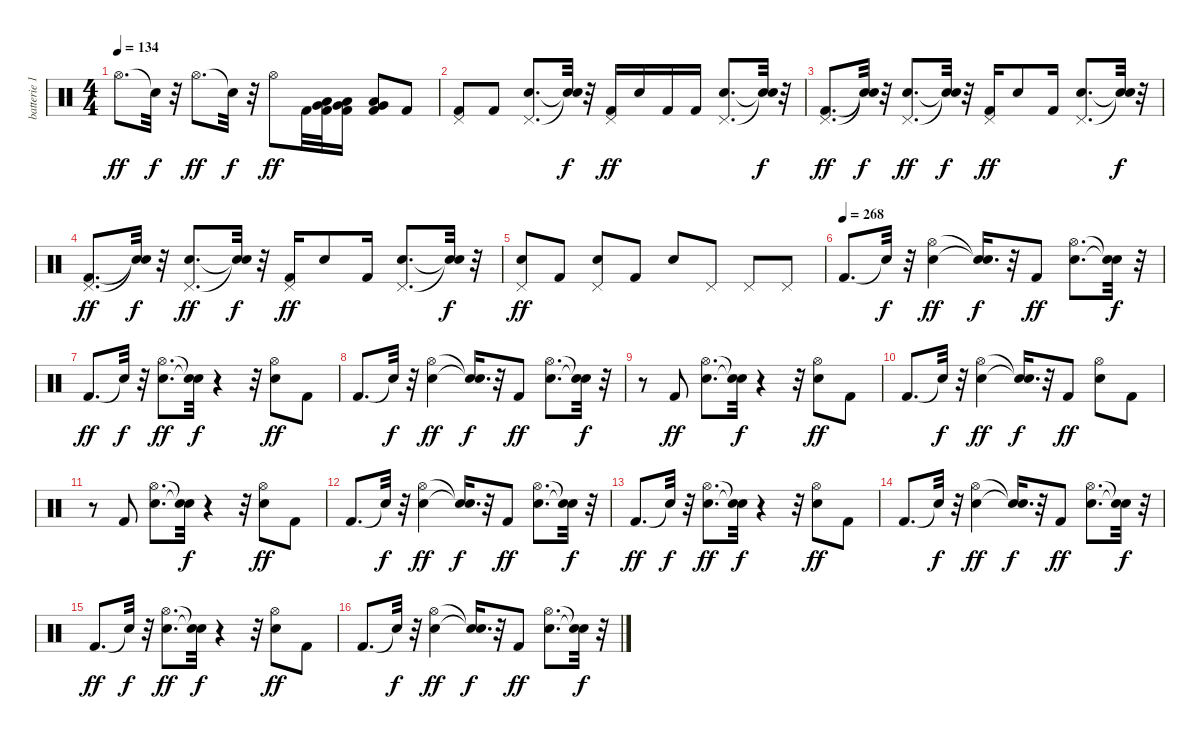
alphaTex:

\track ("batterie 1" "batterie 1") {instrument percussion}
\staff {score}
\articulation defaults
\ts (4 4)
\tempo 134
\clef neutral
\ks c "Hi-Hat (open)".8{d dy ff} "Snare (hit)"{t}.32{dy f}
r.32 "Hi-Hat (open)".8{d dy ff} "Snare (hit)"{t}.32{dy f} r.32 "Hi-Hat (open)".8{dy ff} "Kick (hit) 2".32 ("Kick (hit) 2" "Low Floor Tom (hit)" "Very Low Tom (hit)").32 ("Kick (hit) 2" "Low Floor Tom (hit)" "Very Low Tom (hit)").16 ("Kick (hit) 2" "Low Floor Tom (hit)" "Very Low Tom (hit)").8 "Kick (hit) 2".8 |
("Kick (hit) 2" "Pedal Hi-Hat (hit)").8 "Kick (hit) 2".8 ("Electric Snare (hit)" "Pedal Hi-Hat (hit)").8{d} ("Snare (hit)"{t} "Snare (hit)"{t}).32{dy f} r.32 ("Kick (hit) 2" "Pedal Hi-Hat (hit)").16{dy ff} "Electric Snare (hit)".16 "Kick (hit) 2".16 "Kick (hit) 2".16 ("Electric Snare (hit)" "Pedal Hi-Hat (hit)").8{d} ("Snare (hit)"{t} "Snare (hit)"{t}).32{dy f} r.32 |
("Kick (hit) 2" "Pedal Hi-Hat (hit)").8{d dy ff} ("Snare (hit)"{t} "Snare (hit)"{t}).32{dy f} r.32 ("Electric Snare (hit)" "Pedal Hi-Hat (hit)").8{d dy ff} ("Snare (hit)"{t} "Snare (hit)"{t}).32{dy f} r.32 ("Kick (hit) 2" "Pedal Hi-Hat (hit)").16{dy ff} "Electric Snare (hit)".8 "Kick (hit) 2".16 ("Electric Snare (hit)" "Pedal Hi-Hat (hit)").8{d} ("Snare (hit)"{t} "Snare (hit)"{t}).32{dy f} r.32 |
("Kick (hit) 2" "Pedal Hi-Hat (hit)").8{d dy ff} ("Snare (hit)"{t} "Snare (hit)"{t}).32{dy f} r.32 ("Electric Snare (hit)" "Pedal Hi-Hat (hit)").8{d dy ff} ("Snare (hit)"{t} "Snare (hit)"{t}).32{dy f} r.32 ("Kick (hit) 2" "Pedal Hi-Hat (hit)").16{dy ff} "Electric Snare (hit)".8 "Kick (hit) 2".16 ("Electric Snare (hit)" "Pedal Hi-Hat (hit)").8{d} ("Snare (hit)"{t} "Snare (hit)"{t}).32{dy f} r.32 |
("Electric Snare (hit)" "Pedal Hi-Hat (hit)").8{dy ff} "Kick (hit) 2".8 ("Electric Snare (hit)" "Pedal Hi-Hat (hit)").8 "Kick (hit) 2".8 "Electric Snare (hit)".8 "Pedal Hi-Hat (hit)".8 "Pedal Hi-Hat (hit)".8 "Pedal Hi-Hat (hit)".8 |
\tempo (268)
"Kick (hit) 2".8{d} "Snare (hit)"{t}.32{dy f} r.32 ("Electric Snare (hit)" "Hi-Hat (open)").4{dy ff} ("Snare (hit)"{t} "Snare (hit)"{t}).16{d dy f} r.32 "Kick (hit) 2".8{dy ff} ("Electric Snare (hit)" "Hi-Hat (open)").8{d} ("Snare (hit)"{t} "Snare (hit)"{t}).32{dy f} r.32 |
"Kick (hit) 2".8{d dy ff} "Snare (hit)"{t}.32{dy f} r.32 ("Electric Snare (hit)" "Hi-Hat (open)").8{d dy ff} ("Snare (hit)"{t} "Snare (hit)"{t}).32{dy f} r.4 r.32 ("Electric Snare (hit)" "Hi-Hat (open)").8{dy ff} "Kick (hit) 2".8 |
"Kick (hit) 2".8{d} "Snare (hit)"{t}.32{dy f} r.32 ("Electric Snare (hit)" "Hi-Hat (open)").4{dy ff} ("Snare (hit)"{t} "Snare (hit)"{t}).16{d dy f} r.32 "Kick (hit) 2".8{dy ff} ("Electric Snare (hit)" "Hi-Hat (open)").8{d} ("Snare (hit)"{t} "Snare (hit)"{t}).32{dy f} r.32 |
r.8 "Kick (hit) 2".8{dy ff} ("Electric Snare (hit)" "Hi-Hat (open)").8{d} ("Snare (hit)"{t} "Snare (hit)"{t}).32{dy f} r.4 r.32 ("Electric Snare (hit)" "Hi-Hat (open)").8{dy ff} "Kick (hit) 2".8 |
"Kick (hit) 2".8{d} "Snare (hit)"{t}.32{dy f} r.32 ("Electric Snare (hit)" "Hi-Hat (open)").4{dy ff} ("Snare (hit)"{t} "Snare (hit)"{t}).16{d dy f} r.32 "Kick (hit) 2".8{dy ff} ("Electric Snare (hit)" "Hi-Hat (open)").8 "Kick (hit) 2".8 |
r.8 "Kick (hit) 2".8 ("Electric Snare (hit)" "Hi-Hat (open)").8{d} ("Snare (hit)"{t} "Snare (hit)"{t}).32{dy f} r.4 r.32 ("Electric Snare (hit)" "Hi-Hat (open)").8{dy ff} "Kick (hit) 2".8 |
"Kick (hit) 2".8{d} "Snare (hit)"{t}.32{dy f} r.32 ("Electric Snare (hit)" "Hi-Hat (open)").4{dy ff} ("Snare (hit)"{t} "Snare (hit)"{t}).16{d dy f} r.32 "Kick (hit) 2".8{dy ff} ("Electric Snare (hit)" "Hi-Hat (open)").8{d} ("Snare (hit)"{t} "Snare (hit)"{t}).32{dy f} r.32 |
"Kick (hit) 2".8{d dy ff} "Snare (hit)"{t}.32{dy f} r.32 ("Electric Snare (hit)" "Hi-Hat (open)").8{d dy ff} ("Snare (hit)"{t} "Snare (hit)"{t}).32{dy f} r.4 r.32 ("Electric Snare (hit)" "Hi-Hat (open)").8{dy ff} "Kick (hit) 2".8 |
"Kick (hit) 2".8{d} "Snare (hit)"{t}.32{dy f} r.32 ("Electric Snare (hit)" "Hi-Hat (open)").4{dy ff} ("Snare (hit)"{t} "Snare (hit)"{t}).16{d dy f} r.32 "Kick (hit) 2".8{dy ff} ("Electric Snare (hit)" "Hi-Hat (open)").8{d} ("Snare (hit)"{t} "Snare (hit)"{t}).32{dy f} r.32 |
"Kick (hit) 2".8{d dy ff} "Snare (hit)"{t}.32{dy f} r.32 ("Electric Snare (hit)" "Hi-Hat (open)").8{d dy ff} ("Snare (hit)"{t} "Snare (hit)"{t}).32{dy f} r.4 r.32 ("Electric Snare (hit)" "Hi-Hat (open)").8{dy ff} "Kick (hit) 2".8 |
"Kick (hit) 2".8{d} "Snare (hit)"{t}.32{dy f} r.32 ("Electric Snare (hit)" "Hi-Hat (open)").4{dy ff} ("Snare (hit)"{t} "Snare (hit)"{t}).16{d dy f} r.32 "Kick (hit) 2".8{dy ff} ("Electric Snare (hit)" "Hi-Hat (open)").8{d} ("Snare (hit)"{t} "Snare (hit)"{t}).32{dy f} r.32
